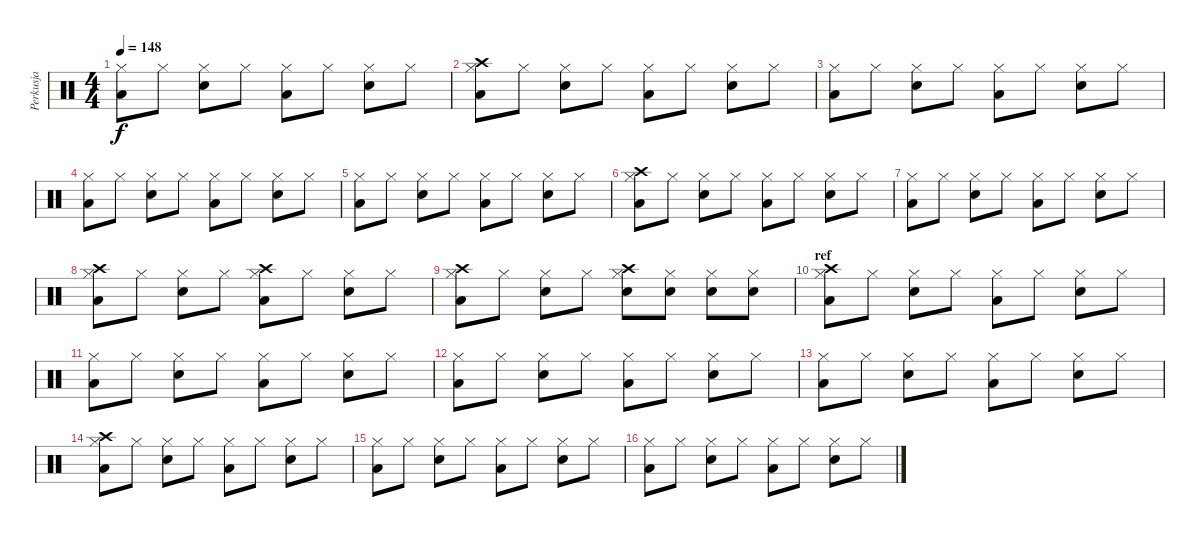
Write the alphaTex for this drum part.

\track ("Perkusja" "Perkusja") {instrument percussion}
\staff {score}
\articulation defaults
\ts (4 4)
\tempo 148
\clef neutral
\ks c
("Low Tom (hit)" "Hi-Hat (closed)").8{dy f} "Hi-Hat (closed)".8 ("Electric Snare (hit)" "Hi-Hat (closed)").8 "Hi-Hat (closed)".8 ("Low Tom (hit)" "Hi-Hat (closed)").8 "Hi-Hat (closed)".8 ("Electric Snare (hit)" "Hi-Hat (closed)").8 "Hi-Hat (closed)".8 |
("Crash high (hit)" "Low Tom (hit)" "Hi-Hat (closed)").8 "Hi-Hat (closed)".8 ("Electric Snare (hit)" "Hi-Hat (closed)").8 "Hi-Hat (closed)".8 ("Low Tom (hit)" "Hi-Hat (closed)").8 "Hi-Hat (closed)".8 ("Electric Snare (hit)" "Hi-Hat (closed)").8 "Hi-Hat (closed)".8 |
("Low Tom (hit)" "Hi-Hat (closed)").8 "Hi-Hat (closed)".8 ("Electric Snare (hit)" "Hi-Hat (closed)").8 "Hi-Hat (closed)".8 ("Low Tom (hit)" "Hi-Hat (closed)").8 "Hi-Hat (closed)".8 ("Electric Snare (hit)" "Hi-Hat (closed)").8 "Hi-Hat (closed)".8 |
("Low Tom (hit)" "Hi-Hat (closed)").8 "Hi-Hat (closed)".8 ("Electric Snare (hit)" "Hi-Hat (closed)").8 "Hi-Hat (closed)".8 ("Low Tom (hit)" "Hi-Hat (closed)").8 "Hi-Hat (closed)".8 ("Electric Snare (hit)" "Hi-Hat (closed)").8 "Hi-Hat (closed)".8 |
("Low Tom (hit)" "Hi-Hat (closed)").8 "Hi-Hat (closed)".8 ("Electric Snare (hit)" "Hi-Hat (closed)").8 "Hi-Hat (closed)".8 ("Low Tom (hit)" "Hi-Hat (closed)").8 "Hi-Hat (closed)".8 ("Electric Snare (hit)" "Hi-Hat (closed)").8 "Hi-Hat (closed)".8 |
("Crash high (hit)" "Low Tom (hit)" "Hi-Hat (closed)").8 "Hi-Hat (closed)".8 ("Electric Snare (hit)" "Hi-Hat (closed)").8 "Hi-Hat (closed)".8 ("Low Tom (hit)" "Hi-Hat (closed)").8 "Hi-Hat (closed)".8 ("Electric Snare (hit)" "Hi-Hat (closed)").8 "Hi-Hat (closed)".8 |
("Low Tom (hit)" "Hi-Hat (closed)").8 "Hi-Hat (closed)".8 ("Electric Snare (hit)" "Hi-Hat (closed)").8 "Hi-Hat (closed)".8 ("Low Tom (hit)" "Hi-Hat (closed)").8 "Hi-Hat (closed)".8 ("Electric Snare (hit)" "Hi-Hat (closed)").8 "Hi-Hat (closed)".8 |
("Crash high (hit)" "Low Tom (hit)" "Hi-Hat (closed)").8 "Hi-Hat (closed)".8 ("Electric Snare (hit)" "Hi-Hat (closed)").8 "Hi-Hat (closed)".8 ("Crash high (hit)" "Low Tom (hit)" "Hi-Hat (closed)").8 "Hi-Hat (closed)".8 ("Electric Snare (hit)" "Hi-Hat (closed)").8 "Hi-Hat (closed)".8 |
("Crash high (hit)" "Low Tom (hit)" "Hi-Hat (closed)").8 "Hi-Hat (closed)".8 ("Electric Snare (hit)" "Hi-Hat (closed)").8 "Hi-Hat (closed)".8 ("Crash high (hit)" "Electric Snare (hit)" "Hi-Hat (closed)").8 ("Electric Snare (hit)" "Hi-Hat (closed)").8 ("Electric Snare (hit)" "Hi-Hat (closed)").8 ("Electric Snare (hit)" "Hi-Hat (closed)").8 |
\section ("" "ref")
("Crash high (hit)" "Low Tom (hit)" "Hi-Hat (closed)").8 "Hi-Hat (closed)".8 ("Electric Snare (hit)" "Hi-Hat (closed)").8 "Hi-Hat (closed)".8 ("Low Tom (hit)" "Hi-Hat (closed)").8 "Hi-Hat (closed)".8 ("Electric Snare (hit)" "Hi-Hat (closed)").8 "Hi-Hat (closed)".8 |
("Low Tom (hit)" "Hi-Hat (closed)").8 "Hi-Hat (closed)".8 ("Electric Snare (hit)" "Hi-Hat (closed)").8 "Hi-Hat (closed)".8 ("Low Tom (hit)" "Hi-Hat (closed)").8 "Hi-Hat (closed)".8 ("Electric Snare (hit)" "Hi-Hat (closed)").8 "Hi-Hat (closed)".8 |
("Low Tom (hit)" "Hi-Hat (closed)").8 "Hi-Hat (closed)".8 ("Electric Snare (hit)" "Hi-Hat (closed)").8 "Hi-Hat (closed)".8 ("Low Tom (hit)" "Hi-Hat (closed)").8 "Hi-Hat (closed)".8 ("Electric Snare (hit)" "Hi-Hat (closed)").8 "Hi-Hat (closed)".8 |
("Low Tom (hit)" "Hi-Hat (closed)").8 "Hi-Hat (closed)".8 ("Electric Snare (hit)" "Hi-Hat (closed)").8 "Hi-Hat (closed)".8 ("Low Tom (hit)" "Hi-Hat (closed)").8 "Hi-Hat (closed)".8 ("Electric Snare (hit)" "Hi-Hat (closed)").8 "Hi-Hat (closed)".8 |
("Crash high (hit)" "Low Tom (hit)" "Hi-Hat (closed)").8 "Hi-Hat (closed)".8 ("Electric Snare (hit)" "Hi-Hat (closed)").8 "Hi-Hat (closed)".8 ("Low Tom (hit)" "Hi-Hat (closed)").8 "Hi-Hat (closed)".8 ("Electric Snare (hit)" "Hi-Hat (closed)").8 "Hi-Hat (closed)".8 |
("Low Tom (hit)" "Hi-Hat (closed)").8 "Hi-Hat (closed)".8 ("Electric Snare (hit)" "Hi-Hat (closed)").8 "Hi-Hat (closed)".8 ("Low Tom (hit)" "Hi-Hat (closed)").8 "Hi-Hat (closed)".8 ("Electric Snare (hit)" "Hi-Hat (closed)").8 "Hi-Hat (closed)".8 |
("Low Tom (hit)" "Hi-Hat (closed)").8 "Hi-Hat (closed)".8 ("Electric Snare (hit)" "Hi-Hat (closed)").8 "Hi-Hat (closed)".8 ("Low Tom (hit)" "Hi-Hat (closed)").8 "Hi-Hat (closed)".8 ("Electric Snare (hit)" "Hi-Hat (closed)").8 "Hi-Hat (closed)".8
